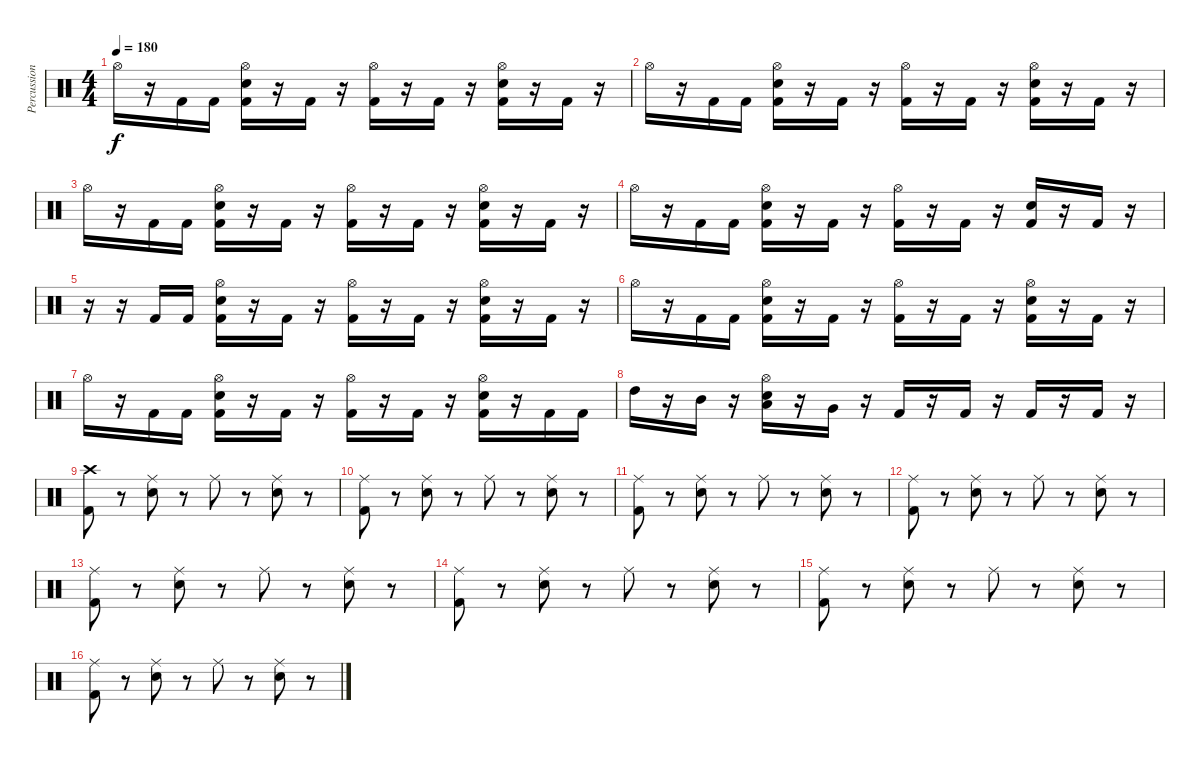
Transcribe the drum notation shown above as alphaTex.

\track ("Percussion" "Percussion") {instrument percussion}
\staff {score}
\articulation defaults
\ts (4 4)
\tempo 180
\clef neutral
\ks c "Hi-Hat (open)"{t}.16{dy f}
r.16 "Kick (hit) 2".16 "Kick (hit) 2".16 ("Hi-Hat (open)" "Snare (hit) 2" "Kick (hit) 2").16 r.16 "Kick (hit) 2".16 r.16 ("Hi-Hat (open)" "Kick (hit) 2").16 r.16 "Kick (hit) 2".16 r.16 ("Hi-Hat (open)" "Snare (hit) 2" "Kick (hit) 2").16 r.16 "Kick (hit) 2".16 r.16 |
"Hi-Hat (open)".16 r.16 "Kick (hit) 2".16 "Kick (hit) 2".16 ("Hi-Hat (open)" "Snare (hit) 2" "Kick (hit) 2").16 r.16 "Kick (hit) 2".16 r.16 ("Hi-Hat (open)" "Kick (hit) 2").16 r.16 "Kick (hit) 2".16 r.16 ("Hi-Hat (open)" "Snare (hit) 2" "Kick (hit) 2").16 r.16 "Kick (hit) 2".16 r.16 |
"Hi-Hat (open)".16 r.16 "Kick (hit) 2".16 "Kick (hit) 2".16 ("Hi-Hat (open)" "Snare (hit) 2" "Kick (hit) 2").16 r.16 "Kick (hit) 2".16 r.16 ("Hi-Hat (open)" "Kick (hit) 2").16 r.16 "Kick (hit) 2".16 r.16 ("Hi-Hat (open)" "Snare (hit) 2" "Kick (hit) 2").16 r.16 "Kick (hit) 2".16 r.16 |
"Hi-Hat (open)".16 r.16 "Kick (hit) 2".16 "Kick (hit) 2".16 ("Hi-Hat (open)" "Snare (hit) 2" "Kick (hit) 2").16 r.16 "Kick (hit) 2".16 r.16 ("Hi-Hat (open)" "Kick (hit) 2").16 r.16 "Kick (hit) 2".16 r.16 ("Snare (hit) 2" "Kick (hit) 2").16 r.16 "Kick (hit) 2".16 r.16 |
r.16 r.16 "Kick (hit) 2".16 "Kick (hit) 2".16 ("Hi-Hat (open)" "Snare (hit) 2" "Kick (hit) 2").16 r.16 "Kick (hit) 2".16 r.16 ("Hi-Hat (open)" "Kick (hit) 2").16 r.16 "Kick (hit) 2".16 r.16 ("Hi-Hat (open)" "Snare (hit) 2" "Kick (hit) 2").16 r.16 "Kick (hit) 2".16 r.16 |
"Hi-Hat (open)".16 r.16 "Kick (hit) 2".16 "Kick (hit) 2".16 ("Hi-Hat (open)" "Snare (hit) 2" "Kick (hit) 2").16 r.16 "Kick (hit) 2".16 r.16 ("Hi-Hat (open)" "Kick (hit) 2").16 r.16 "Kick (hit) 2".16 r.16 ("Hi-Hat (open)" "Snare (hit) 2" "Kick (hit) 2").16 r.16 "Kick (hit) 2".16 r.16 |
"Hi-Hat (open)".16 r.16 "Kick (hit) 2".16 "Kick (hit) 2".16 ("Hi-Hat (open)" "Snare (hit) 2" "Kick (hit) 2").16 r.16 "Kick (hit) 2".16 r.16 ("Hi-Hat (open)" "Kick (hit) 2").16 r.16 "Kick (hit) 2".16 r.16 ("Hi-Hat (open)" "Snare (hit) 2" "Kick (hit) 2").16 r.16 "Kick (hit) 2".16 "Kick (hit) 2".16 |
"High Tom (hit)".16 r.16 "Mid Tom (hit)".16 r.16 ("Hi-Hat (open)" "Snare (hit) 2" "Low Tom (hit)").16 r.16 "Very Low Tom (hit)".16 r.16 "Kick (hit) 2".16 r.16 "Kick (hit) 2".16 r.16 "Kick (hit) 2".16 r.16 "Kick (hit) 2".16 r.16 |
("Crash high (hit)" "Kick (hit) 2").8 r.8 ("Ride (middle)" "Snare (hit) 2").8 r.8 "Ride (middle)".8 r.8 ("Ride (middle)" "Snare (hit) 2").8 r.8 |
("Ride (middle)" "Kick (hit) 2").8 r.8 ("Ride (middle)" "Snare (hit) 2").8 r.8 "Ride (middle)".8 r.8 ("Ride (middle)" "Snare (hit) 2").8 r.8 |
("Ride (middle)" "Kick (hit) 2").8 r.8 ("Ride (middle)" "Snare (hit) 2").8 r.8 "Ride (middle)".8 r.8 ("Ride (middle)" "Snare (hit) 2").8 r.8 |
("Ride (middle)" "Kick (hit) 2").8 r.8 ("Ride (middle)" "Snare (hit) 2").8 r.8 "Ride (middle)".8 r.8 ("Ride (middle)" "Snare (hit) 2").8 r.8 |
("Ride (middle)" "Kick (hit) 2").8 r.8 ("Ride (middle)" "Snare (hit) 2").8 r.8 "Ride (middle)".8 r.8 ("Ride (middle)" "Snare (hit) 2").8 r.8 |
("Ride (middle)" "Kick (hit) 2").8 r.8 ("Ride (middle)" "Snare (hit) 2").8 r.8 "Ride (middle)".8 r.8 ("Ride (middle)" "Snare (hit) 2").8 r.8 |
("Ride (middle)" "Kick (hit) 2").8 r.8 ("Ride (middle)" "Snare (hit) 2").8 r.8 "Ride (middle)".8 r.8 ("Ride (middle)" "Snare (hit) 2").8 r.8 |
("Ride (middle)" "Kick (hit) 2").8 r.8 ("Ride (middle)" "Snare (hit) 2").8 r.8 "Ride (middle)".8 r.8 ("Ride (middle)" "Snare (hit) 2").8 r.8
